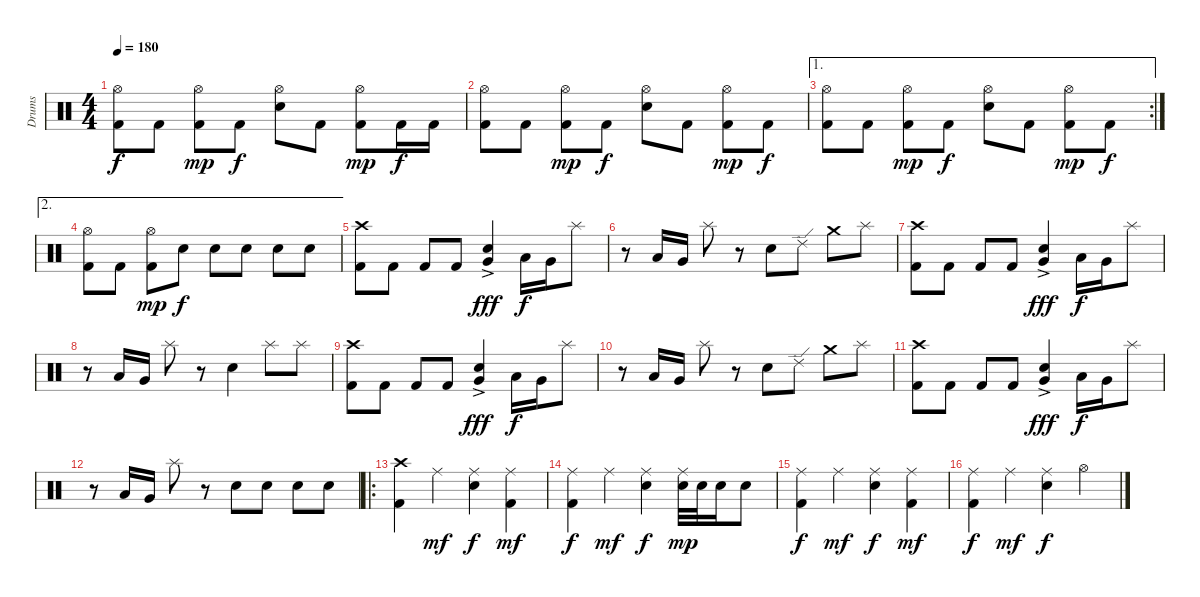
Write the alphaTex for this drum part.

\track ("Drums" "Drums") {instrument percussion}
\staff {score}
\articulation defaults
\ts (4 4)
\tempo 180
\clef neutral
\ks c
("Hi-Hat (open)" "Kick (hit) 2").8{dy f} "Kick (hit) 2".8 ("Hi-Hat (open)" "Kick (hit) 2").8{dy mp} "Kick (hit) 2".8{dy f} ("Hi-Hat (open)" "Snare (hit) 2").8 "Kick (hit) 2".8 ("Hi-Hat (open)" "Kick (hit) 2").8{dy mp} "Kick (hit) 2".16{dy f} "Kick (hit) 2".16 |
("Hi-Hat (open)" "Kick (hit) 2").8 "Kick (hit) 2".8 ("Hi-Hat (open)" "Kick (hit) 2").8{dy mp} "Kick (hit) 2".8{dy f} ("Hi-Hat (open)" "Snare (hit) 2").8 "Kick (hit) 2".8 ("Hi-Hat (open)" "Kick (hit) 2").8{dy mp} "Kick (hit) 2".8{dy f} |
\ae 1
\rc 2
("Hi-Hat (open)" "Kick (hit) 2").8 "Kick (hit) 2".8 ("Hi-Hat (open)" "Kick (hit) 2").8{dy mp} "Kick (hit) 2".8{dy f} ("Hi-Hat (open)" "Snare (hit) 2").8 "Kick (hit) 2".8 ("Hi-Hat (open)" "Kick (hit) 2").8{dy mp} "Kick (hit) 2".8{dy f} |
\ae 2
("Hi-Hat (open)" "Kick (hit) 2").8 "Kick (hit) 2".8 ("Hi-Hat (open)" "Kick (hit) 2").8{dy mp} "Snare (hit) 2".8{dy f} "Snare (hit) 2".8 "Snare (hit) 2".8 "Snare (hit) 2".8 "Snare (hit) 2".8 |
("Crash high (hit)" "Kick (hit) 2").8 "Kick (hit) 2".8 "Kick (hit) 2".8 "Kick (hit) 2".8 ("Snare (hit) 2" "Very Low Tom (hit)"{ac}).4{dy fff} "Low Tom (hit)".16{dy f} "Very Low Tom (hit)".16 "Splash (hit)".8 |
r.8 "Low Tom (hit)".16 "Very Low Tom (hit)".16 "Splash (hit)".8 r.8 "Snare (hit) 2".8 "Ride (edge) 2".8 "Crash medium (hit)".8 "Splash (hit)".8 |
("Crash high (hit)" "Kick (hit) 2").8 "Kick (hit) 2".8 "Kick (hit) 2".8 "Kick (hit) 2".8 ("Snare (hit) 2" "Very Low Tom (hit)"{ac}).4{dy fff} "Low Tom (hit)".16{dy f} "Very Low Tom (hit)".16 "Splash (hit)".8 |
r.8 "Low Tom (hit)".16 "Very Low Tom (hit)".16 "Splash (hit)".8 r.8 "Snare (hit) 2".4 "Splash (hit)".8 "Splash (hit)".8 |
("Crash high (hit)" "Kick (hit) 2").8 "Kick (hit) 2".8 "Kick (hit) 2".8 "Kick (hit) 2".8 ("Snare (hit) 2" "Very Low Tom (hit)"{ac}).4{dy fff} "Low Tom (hit)".16{dy f} "Very Low Tom (hit)".16 "Splash (hit)".8 |
r.8 "Low Tom (hit)".16 "Very Low Tom (hit)".16 "Splash (hit)".8 r.8 "Snare (hit) 2".8 "Ride (edge) 2".8 "Crash medium (hit)".8 "Splash (hit)".8 |
("Crash high (hit)" "Kick (hit) 2").8 "Kick (hit) 2".8 "Kick (hit) 2".8 "Kick (hit) 2".8 ("Snare (hit) 2" "Very Low Tom (hit)"{ac}).4{dy fff} "Low Tom (hit)".16{dy f} "Very Low Tom (hit)".16 "Splash (hit)".8 |
r.8 "Low Tom (hit)".16 "Very Low Tom (hit)".16 "Splash (hit)".8 r.8 "Snare (hit) 2".8 "Snare (hit) 2".8 "Snare (hit) 2".8 "Snare (hit) 2".8 |
\ro
("Crash high (hit)" "Kick (hit) 2").4 "Ride (middle)".4{dy mf} ("Ride (middle)" "Snare (hit) 2").4{dy f} ("Ride (middle)" "Kick (hit) 2").4{dy mf} |
("Ride (middle)" "Kick (hit) 2").4{dy f} "Ride (middle)".4{dy mf} ("Ride (middle)" "Snare (hit) 2").4{dy f} ("Ride (middle)" "Snare (hit) 2").32{dy mp} "Snare (hit) 2".32 "Snare (hit) 2".16 "Snare (hit) 2".8 |
("Ride (middle)" "Kick (hit) 2").4{dy f} "Ride (middle)".4{dy mf} ("Ride (middle)" "Snare (hit) 2").4{dy f} ("Ride (middle)" "Kick (hit) 2").4{dy mf} |
("Ride (middle)" "Kick (hit) 2").4{dy f} "Ride (middle)".4{dy mf} ("Ride (middle)" "Snare (hit) 2").4{dy f} "Hi-Hat (open)".4
